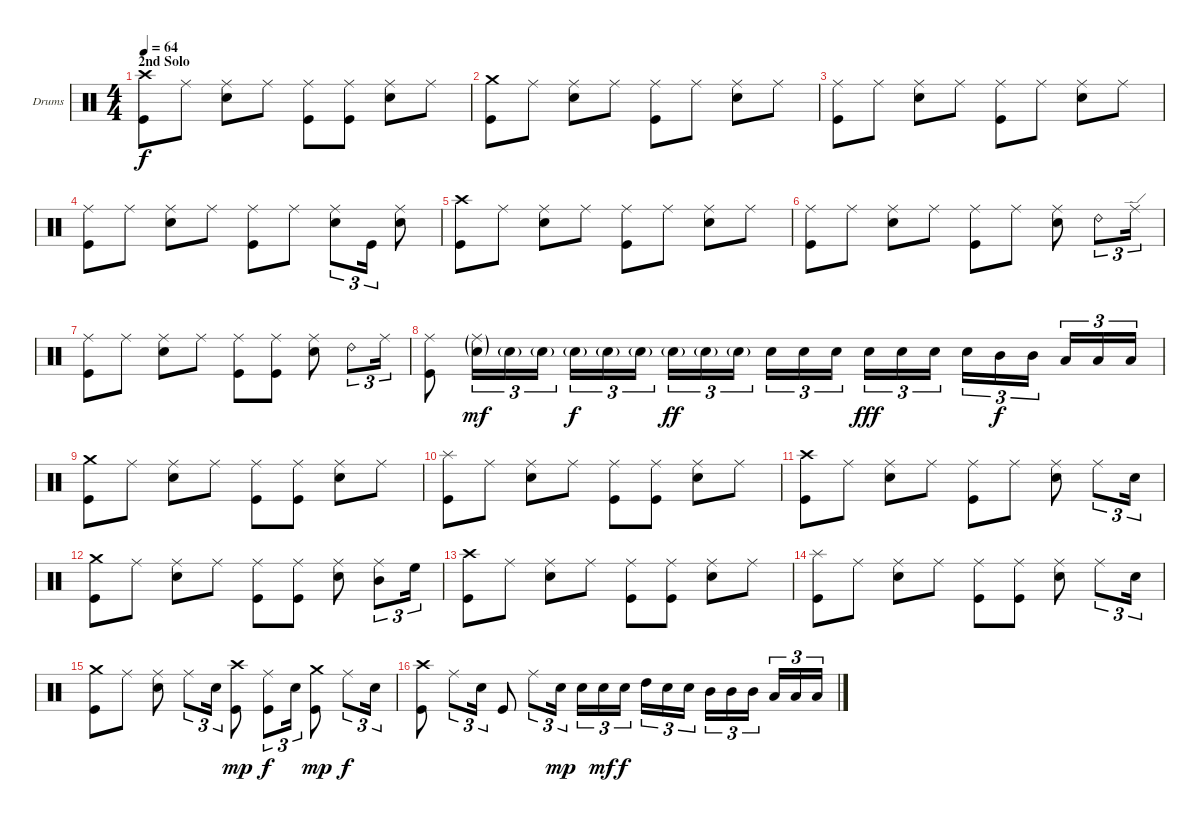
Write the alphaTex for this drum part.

\bracketExtendMode groupsimilarinstruments
\firstSystemTrackNameOrientation horizontal
\otherSystemsTrackNameOrientation horizontal
\track ("Drumkit" "Drums") {instrument percussion}
\staff {score}
\articulation defaults
\ts (4 4)
\section ("" "2nd Solo")
\tempo 64
\clef neutral
\ks c
("Crash high (hit)" "Kick (hit)").8{dy f} "Ride (middle)".8 ("Ride (middle)" "Snare (hit) 2").8 "Ride (middle)".8 ("Ride (middle)" "Kick (hit)").8 ("Ride (middle)" "Kick (hit)").8 ("Ride (middle)" "Snare (hit) 2").8 "Ride (middle)".8 |
("Crash medium (hit)" "Kick (hit)").8 "Ride (middle)".8 ("Ride (middle)" "Snare (hit) 2").8 "Ride (middle)".8 ("Ride (middle)" "Kick (hit)").8 "Ride (middle)".8 ("Ride (middle)" "Snare (hit) 2").8 "Ride (middle)".8 |
("Ride (middle)" "Kick (hit)").8 "Ride (middle)".8 ("Ride (middle)" "Snare (hit) 2").8 "Ride (middle)".8 ("Ride (middle)" "Kick (hit)").8 "Ride (middle)".8 ("Ride (middle)" "Snare (hit) 2").8 "Ride (middle)".8 |
("Ride (middle)" "Kick (hit)").8 "Ride (middle)".8 ("Ride (middle)" "Snare (hit) 2").8 "Ride (middle)".8 ("Ride (middle)" "Kick (hit)").8 "Ride (middle)".8 ("Ride (middle)" "Snare (hit) 2").8{tu (3 2)} "Kick (hit)".16{tu (3 2)} ("Ride (middle)" "Snare (hit) 2").8 |
("Crash high (hit)" "Kick (hit)").8 "Ride (middle)".8 ("Ride (middle)" "Snare (hit) 2").8 "Ride (middle)".8 ("Ride (middle)" "Kick (hit)").8 "Ride (middle)".8 ("Ride (middle)" "Snare (hit) 2").8 "Ride (middle)".8 |
("Ride (middle)" "Kick (hit)").8 "Ride (middle)".8 ("Ride (middle)" "Snare (hit) 2").8 "Ride (middle)".8 ("Ride (middle)" "Kick (hit)").8 "Ride (middle)".8 ("Ride (middle)" "Snare (hit) 2").8 "Ride (bell) 2".8{tu (3 2)} "Ride (edge)".16{tu (3 2)} |
("Ride (middle)" "Kick (hit)").8 "Ride (middle)".8 ("Ride (middle)" "Snare (hit) 2").8 "Ride (middle)".8 ("Ride (middle)" "Kick (hit)").8 ("Ride (middle)" "Kick (hit)").8 ("Ride (middle)" "Snare (hit) 2").8 "Ride (bell) 2".8{tu (3 2)} "Ride (middle)".16{tu (3 2)} |
("Ride (middle)" "Kick (hit)").8 ("Ride (middle)"{g} "Snare (hit) 2"{g}).16{tu (3 2) dy mf} "Snare (hit) 2"{g}.16{tu (3 2)} "Snare (hit) 2"{g}.16{tu (3 2)} "Snare (hit) 2"{g}.16{tu (3 2) dy f} "Snare (hit) 2"{g}.16{tu (3 2)} "Snare (hit) 2"{g}.16{tu (3 2)} "Snare (hit) 2"{g}.16{tu (3 2) dy ff} "Snare (hit) 2"{g}.16{tu (3 2)} "Snare (hit) 2"{g}.16{tu (3 2)} "Snare (hit) 2".16{tu (3 2)} "Snare (hit) 2".16{tu (3 2)} "Snare (hit) 2".16{tu (3 2)} "Snare (hit) 2".16{tu (3 2) dy fff} "Snare (hit) 2".16{tu (3 2)} "Snare (hit) 2".16{tu (3 2)} "Snare (hit) 2".16{tu (3 2)} "Mid Tom (hit)".16{tu (3 2) dy f} "Mid Tom (hit)".16{tu (3 2)} "Low Tom (hit)".16{tu (3 2)} "Low Tom (hit)".16{tu (3 2)} "Low Tom (hit)".16{tu (3 2)} |
("Crash medium (hit)" "Kick (hit)").8 "Ride (middle)".8 ("Ride (middle)" "Snare (hit) 2").8 "Ride (middle)".8 ("Ride (middle)" "Kick (hit)").8 ("Ride (middle)" "Kick (hit)").8 ("Ride (middle)" "Snare (hit) 2").8 "Ride (middle)".8 |
("Splash (hit)" "Kick (hit)").8 "Ride (middle)".8 ("Ride (middle)" "Snare (hit) 2").8 "Ride (middle)".8 ("Ride (middle)" "Kick (hit)").8 ("Ride (middle)" "Kick (hit)").8 ("Ride (middle)" "Snare (hit) 2").8 "Ride (middle)".8 |
("Crash high (hit)" "Kick (hit)").8 "Ride (middle)".8 ("Ride (middle)" "Snare (hit) 2").8 "Ride (middle)".8 ("Ride (middle)" "Kick (hit)").8 "Ride (middle)".8 ("Ride (middle)" "Snare (hit) 2").8 "Ride (middle)".8{tu (3 2)} "Snare (hit) 2".16{tu (3 2)} |
("Crash medium (hit)" "Kick (hit)").8 "Ride (middle)".8 ("Ride (middle)" "Snare (hit) 2").8 "Ride (middle)".8 ("Ride (middle)" "Kick (hit)").8 ("Ride (middle)" "Kick (hit)").8 ("Ride (middle)" "Snare (hit) 2").8 ("Ride (middle)" "Mid Tom (hit)").8{tu (3 2)} "High Floor Tom (hit)".16{tu (3 2)} |
("Crash high (hit)" "Kick (hit)").8 "Ride (middle)".8 ("Ride (middle)" "Snare (hit) 2").8 "Ride (middle)".8 ("Ride (middle)" "Kick (hit)").8 ("Ride (middle)" "Kick (hit)").8 ("Ride (middle)" "Snare (hit) 2").8 "Ride (middle)".8 |
("Splash (hit)" "Kick (hit)").8 "Ride (middle)".8 ("Ride (middle)" "Snare (hit) 2").8 "Ride (middle)".8 ("Ride (middle)" "Kick (hit)").8 ("Ride (middle)" "Kick (hit)").8 ("Ride (middle)" "Snare (hit) 2").8 "Ride (middle)".8{tu (3 2)} "Snare (hit) 2".16{tu (3 2)} |
("Crash medium (hit)" "Kick (hit)").8 "Ride (middle)".8 ("Ride (middle)" "Snare (hit) 2").8 "Ride (middle)".8{tu (3 2)} "Snare (hit) 2".16{tu (3 2)} ("Crash high (hit)" "Kick (hit)").8{dy mp} ("Ride (middle)" "Kick (hit)").8{tu (3 2) dy f} "Snare (hit) 2".16{tu (3 2)} ("Crash medium (hit)" "Kick (hit)").8{dy mp} "Ride (middle)".8{tu (3 2) dy f} "Snare (hit) 2".16{tu (3 2)} |
("Crash high (hit)" "Kick (hit)").8 "Ride (middle)".8{tu (3 2)} "Snare (hit) 2".16{tu (3 2)} "Kick (hit)".8 "Ride (middle)".8{tu (3 2)} "Snare (hit) 2".16{tu (3 2) dy mp} "Snare (hit) 2".16{tu (3 2)} "Snare (hit) 2".16{tu (3 2) dy mf} "Snare (hit) 2".16{tu (3 2) dy f} "High Tom (hit)".16{tu (3 2)} "Snare (hit) 2".16{tu (3 2)} "Snare (hit) 2".16{tu (3 2)} "Mid Tom (hit)".16{tu (3 2)} "Mid Tom (hit)".16{tu (3 2)} "Mid Tom (hit)".16{tu (3 2)} "Low Tom (hit)".16{tu (3 2)} "Low Tom (hit)".16{tu (3 2)} "Low Tom (hit)".16{tu (3 2)}
